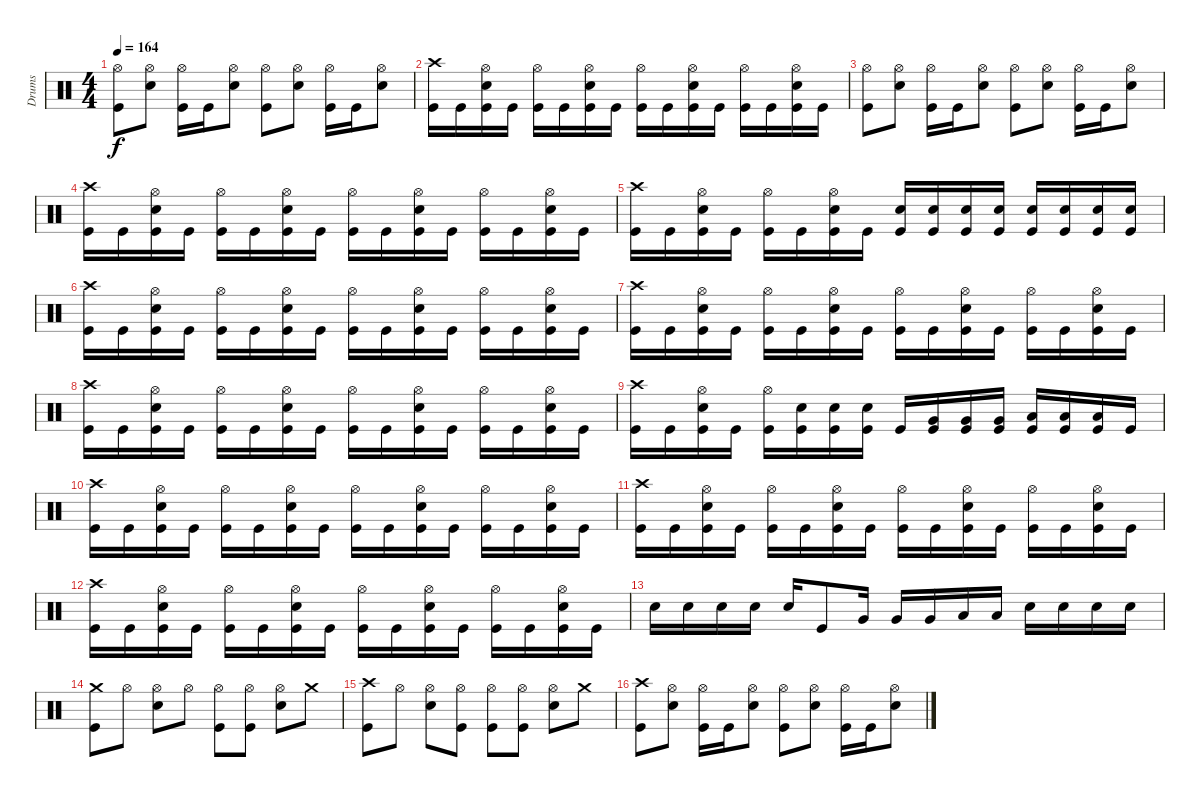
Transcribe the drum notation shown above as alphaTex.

\track ("Drums" "Drums") {instrument percussion}
\staff {score}
\articulation defaults
\ts (4 4)
\tempo 164
\clef neutral
\ks c
("Hi-Hat (open)" "Kick (hit)").8{dy f} ("Hi-Hat (open)" "Snare (hit) 2").8 ("Hi-Hat (open)" "Kick (hit)").16 "Kick (hit)".16 ("Hi-Hat (open)" "Snare (hit) 2").8 ("Hi-Hat (open)" "Kick (hit)").8 ("Hi-Hat (open)" "Snare (hit) 2").8 ("Hi-Hat (open)" "Kick (hit)").16 "Kick (hit)".16 ("Hi-Hat (open)" "Snare (hit) 2").8 |
("Crash high (hit)" "Kick (hit)").16 "Kick (hit)".16 ("Hi-Hat (open)" "Snare (hit) 2" "Kick (hit)").16 "Kick (hit)".16 ("Hi-Hat (open)" "Kick (hit)").16 "Kick (hit)".16 ("Hi-Hat (open)" "Snare (hit) 2" "Kick (hit)").16 "Kick (hit)".16 ("Hi-Hat (open)" "Kick (hit)").16 "Kick (hit)".16 ("Hi-Hat (open)" "Snare (hit) 2" "Kick (hit)").16 "Kick (hit)".16 ("Hi-Hat (open)" "Kick (hit)").16 "Kick (hit)".16 ("Hi-Hat (open)" "Snare (hit) 2" "Kick (hit)").16 "Kick (hit)".16 |
("Hi-Hat (open)" "Kick (hit)").8 ("Hi-Hat (open)" "Snare (hit) 2").8 ("Hi-Hat (open)" "Kick (hit)").16 "Kick (hit)".16 ("Hi-Hat (open)" "Snare (hit) 2").8 ("Hi-Hat (open)" "Kick (hit)").8 ("Hi-Hat (open)" "Snare (hit) 2").8 ("Hi-Hat (open)" "Kick (hit)").16 "Kick (hit)".16 ("Hi-Hat (open)" "Snare (hit) 2").8 |
("Crash high (hit)" "Kick (hit)").16 "Kick (hit)".16 ("Hi-Hat (open)" "Snare (hit) 2" "Kick (hit)").16 "Kick (hit)".16 ("Hi-Hat (open)" "Kick (hit)").16 "Kick (hit)".16 ("Hi-Hat (open)" "Snare (hit) 2" "Kick (hit)").16 "Kick (hit)".16 ("Hi-Hat (open)" "Kick (hit)").16 "Kick (hit)".16 ("Hi-Hat (open)" "Snare (hit) 2" "Kick (hit)").16 "Kick (hit)".16 ("Hi-Hat (open)" "Kick (hit)").16 "Kick (hit)".16 ("Hi-Hat (open)" "Snare (hit) 2" "Kick (hit)").16 "Kick (hit)".16 |
("Crash high (hit)" "Kick (hit)").16 "Kick (hit)".16 ("Hi-Hat (open)" "Snare (hit) 2" "Kick (hit)").16 "Kick (hit)".16 ("Hi-Hat (open)" "Kick (hit)").16 "Kick (hit)".16 ("Hi-Hat (open)" "Snare (hit) 2" "Kick (hit)").16 "Kick (hit)".16 ("Snare (hit) 2" "Kick (hit)").16 ("Snare (hit) 2" "Kick (hit)").16 ("Snare (hit) 2" "Kick (hit)").16 ("Snare (hit) 2" "Kick (hit)").16 ("Snare (hit) 2" "Kick (hit)").16 ("Snare (hit) 2" "Kick (hit)").16 ("Snare (hit) 2" "Kick (hit)").16 ("Snare (hit) 2" "Kick (hit)").16 |
("Crash high (hit)" "Kick (hit)").16 "Kick (hit)".16 ("Hi-Hat (open)" "Snare (hit) 2" "Kick (hit)").16 "Kick (hit)".16 ("Hi-Hat (open)" "Kick (hit)").16 "Kick (hit)".16 ("Hi-Hat (open)" "Snare (hit) 2" "Kick (hit)").16 "Kick (hit)".16 ("Hi-Hat (open)" "Kick (hit)").16 "Kick (hit)".16 ("Hi-Hat (open)" "Snare (hit) 2" "Kick (hit)").16 "Kick (hit)".16 ("Hi-Hat (open)" "Kick (hit)").16 "Kick (hit)".16 ("Hi-Hat (open)" "Snare (hit) 2" "Kick (hit)").16 "Kick (hit)".16 |
("Crash high (hit)" "Kick (hit)").16 "Kick (hit)".16 ("Hi-Hat (open)" "Snare (hit) 2" "Kick (hit)").16 "Kick (hit)".16 ("Hi-Hat (open)" "Kick (hit)").16 "Kick (hit)".16 ("Hi-Hat (open)" "Snare (hit) 2" "Kick (hit)").16 "Kick (hit)".16 ("Hi-Hat (open)" "Kick (hit)").16 "Kick (hit)".16 ("Hi-Hat (open)" "Snare (hit) 2" "Kick (hit)").16 "Kick (hit)".16 ("Hi-Hat (open)" "Kick (hit)").16 "Kick (hit)".16 ("Hi-Hat (open)" "Snare (hit) 2" "Kick (hit)").16 "Kick (hit)".16 |
("Crash high (hit)" "Kick (hit)").16 "Kick (hit)".16 ("Hi-Hat (open)" "Snare (hit) 2" "Kick (hit)").16 "Kick (hit)".16 ("Hi-Hat (open)" "Kick (hit)").16 "Kick (hit)".16 ("Hi-Hat (open)" "Snare (hit) 2" "Kick (hit)").16 "Kick (hit)".16 ("Hi-Hat (open)" "Kick (hit)").16 "Kick (hit)".16 ("Hi-Hat (open)" "Snare (hit) 2" "Kick (hit)").16 "Kick (hit)".16 ("Hi-Hat (open)" "Kick (hit)").16 "Kick (hit)".16 ("Hi-Hat (open)" "Snare (hit) 2" "Kick (hit)").16 "Kick (hit)".16 |
("Crash high (hit)" "Kick (hit)").16 "Kick (hit)".16 ("Hi-Hat (open)" "Snare (hit) 2" "Kick (hit)").16 "Kick (hit)".16 ("Hi-Hat (open)" "Kick (hit)").16 ("Snare (hit) 2" "Kick (hit)").16 ("Snare (hit) 2" "Kick (hit)").16 ("Snare (hit) 2" "Kick (hit)").16 "Kick (hit)".16 ("Very Low Tom (hit)" "Kick (hit)").16 ("Very Low Tom (hit)" "Kick (hit)").16 ("Very Low Tom (hit)" "Kick (hit)").16 ("Low Floor Tom (hit)" "Kick (hit)").16 ("Low Floor Tom (hit)" "Kick (hit)").16 ("Low Floor Tom (hit)" "Kick (hit)").16 "Kick (hit)".16 |
("Crash high (hit)" "Kick (hit)").16 "Kick (hit)".16 ("Hi-Hat (open)" "Snare (hit) 2" "Kick (hit)").16 "Kick (hit)".16 ("Hi-Hat (open)" "Kick (hit)").16 "Kick (hit)".16 ("Hi-Hat (open)" "Snare (hit) 2" "Kick (hit)").16 "Kick (hit)".16 ("Hi-Hat (open)" "Kick (hit)").16 "Kick (hit)".16 ("Hi-Hat (open)" "Snare (hit) 2" "Kick (hit)").16 "Kick (hit)".16 ("Hi-Hat (open)" "Kick (hit)").16 "Kick (hit)".16 ("Hi-Hat (open)" "Snare (hit) 2" "Kick (hit)").16 "Kick (hit)".16 |
("Crash high (hit)" "Kick (hit)").16 "Kick (hit)".16 ("Hi-Hat (open)" "Snare (hit) 2" "Kick (hit)").16 "Kick (hit)".16 ("Hi-Hat (open)" "Kick (hit)").16 "Kick (hit)".16 ("Hi-Hat (open)" "Snare (hit) 2" "Kick (hit)").16 "Kick (hit)".16 ("Hi-Hat (open)" "Kick (hit)").16 "Kick (hit)".16 ("Hi-Hat (open)" "Snare (hit) 2" "Kick (hit)").16 "Kick (hit)".16 ("Hi-Hat (open)" "Kick (hit)").16 "Kick (hit)".16 ("Hi-Hat (open)" "Snare (hit) 2" "Kick (hit)").16 "Kick (hit)".16 |
("Crash high (hit)" "Kick (hit)").16 "Kick (hit)".16 ("Hi-Hat (open)" "Snare (hit) 2" "Kick (hit)").16 "Kick (hit)".16 ("Hi-Hat (open)" "Kick (hit)").16 "Kick (hit)".16 ("Hi-Hat (open)" "Snare (hit) 2" "Kick (hit)").16 "Kick (hit)".16 ("Hi-Hat (open)" "Kick (hit)").16 "Kick (hit)".16 ("Hi-Hat (open)" "Snare (hit) 2" "Kick (hit)").16 "Kick (hit)".16 ("Hi-Hat (open)" "Kick (hit)").16 "Kick (hit)".16 ("Hi-Hat (open)" "Snare (hit) 2" "Kick (hit)").16 "Kick (hit)".16 |
"Snare (hit) 2".16 "Snare (hit) 2".16 "Snare (hit) 2".16 "Snare (hit) 2".16 "Snare (hit) 2".16 "Kick (hit)".8 "Very Low Tom (hit)".16 "Very Low Tom (hit)".16 "Very Low Tom (hit)".16 "Low Floor Tom (hit)".16 "Low Floor Tom (hit)".16 "Snare (hit) 2".16 "Snare (hit) 2".16 "Snare (hit) 2".16 "Snare (hit) 2".16 |
("Crash medium (hit)" "Kick (hit)").8 "Hi-Hat (open)".8 ("Hi-Hat (open)" "Snare (hit) 2").8 "Hi-Hat (open)".8 ("Hi-Hat (open)" "Kick (hit)").8 ("Hi-Hat (open)" "Kick (hit)").8 ("Hi-Hat (open)" "Snare (hit) 2").8 "Crash medium (hit)".8 |
("Crash high (hit)" "Kick (hit)").8 "Hi-Hat (open)".8 ("Hi-Hat (open)" "Snare (hit) 2").8 ("Hi-Hat (open)" "Kick (hit)").8 ("Hi-Hat (open)" "Kick (hit)").8 ("Hi-Hat (open)" "Kick (hit)").8 ("Hi-Hat (open)" "Snare (hit) 2").8 "Crash medium (hit)".8 |
("Crash high (hit)" "Kick (hit)").8 ("Hi-Hat (open)" "Snare (hit) 2").8 ("Hi-Hat (open)" "Kick (hit)").16 "Kick (hit)".16 ("Hi-Hat (open)" "Snare (hit) 2").8 ("Hi-Hat (open)" "Kick (hit)").8 ("Hi-Hat (open)" "Snare (hit) 2").8 ("Hi-Hat (open)" "Kick (hit)").16 "Kick (hit)".16 ("Hi-Hat (open)" "Snare (hit) 2").8
